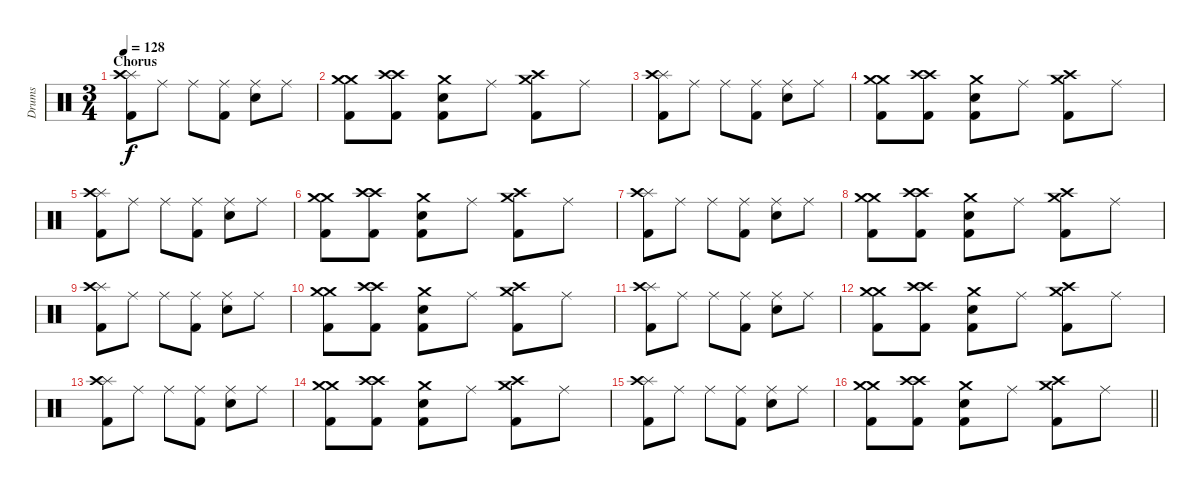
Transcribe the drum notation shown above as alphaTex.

\track ("Drums" "Drums") {instrument percussion}
\staff {score}
\articulation defaults
\ts (3 4)
\section ("" "Chorus")
\tempo 128
\clef neutral
\ks c
("Splash (hit)" "Crash high (hit)" "Kick (hit) 2").8{dy f} "Ride (middle)".8 "Ride (middle)".8 ("Ride (middle)" "Kick (hit) 2").8 ("Ride (middle)" "Snare (hit) 2").8 "Ride (middle)".8 |
("Crash medium (hit)" "Crash medium (hit)" "Kick (hit) 2").8 ("Crash high (hit)" "Crash high (hit)" "Kick (hit) 2").8 ("Crash medium (hit)" "Snare (hit) 2" "Kick (hit) 2").8 "Ride (middle)".8 ("Crash medium (hit)" "Crash high (hit)" "Kick (hit) 2").8 "Ride (middle)".8 |
("Splash (hit)" "Crash high (hit)" "Kick (hit) 2").8 "Ride (middle)".8 "Ride (middle)".8 ("Ride (middle)" "Kick (hit) 2").8 ("Ride (middle)" "Snare (hit) 2").8 "Ride (middle)".8 |
("Crash medium (hit)" "Crash medium (hit)" "Kick (hit) 2").8 ("Crash high (hit)" "Crash high (hit)" "Kick (hit) 2").8 ("Crash medium (hit)" "Snare (hit) 2" "Kick (hit) 2").8 "Ride (middle)".8 ("Crash medium (hit)" "Crash high (hit)" "Kick (hit) 2").8 "Ride (middle)".8 |
("Splash (hit)" "Crash high (hit)" "Kick (hit) 2").8 "Ride (middle)".8 "Ride (middle)".8 ("Ride (middle)" "Kick (hit) 2").8 ("Ride (middle)" "Snare (hit) 2").8 "Ride (middle)".8 |
("Crash medium (hit)" "Crash medium (hit)" "Kick (hit) 2").8 ("Crash high (hit)" "Crash high (hit)" "Kick (hit) 2").8 ("Crash medium (hit)" "Snare (hit) 2" "Kick (hit) 2").8 "Ride (middle)".8 ("Crash medium (hit)" "Crash high (hit)" "Kick (hit) 2").8 "Ride (middle)".8 |
("Splash (hit)" "Crash high (hit)" "Kick (hit) 2").8 "Ride (middle)".8 "Ride (middle)".8 ("Ride (middle)" "Kick (hit) 2").8 ("Ride (middle)" "Snare (hit) 2").8 "Ride (middle)".8 |
("Crash medium (hit)" "Crash medium (hit)" "Kick (hit) 2").8 ("Crash high (hit)" "Crash high (hit)" "Kick (hit) 2").8 ("Crash medium (hit)" "Snare (hit) 2" "Kick (hit) 2").8 "Ride (middle)".8 ("Crash medium (hit)" "Crash high (hit)" "Kick (hit) 2").8 "Ride (middle)".8 |
("Splash (hit)" "Crash high (hit)" "Kick (hit) 2").8 "Ride (middle)".8 "Ride (middle)".8 ("Ride (middle)" "Kick (hit) 2").8 ("Ride (middle)" "Snare (hit) 2").8 "Ride (middle)".8 |
("Crash medium (hit)" "Crash medium (hit)" "Kick (hit) 2").8 ("Crash high (hit)" "Crash high (hit)" "Kick (hit) 2").8 ("Crash medium (hit)" "Snare (hit) 2" "Kick (hit) 2").8 "Ride (middle)".8 ("Crash medium (hit)" "Crash high (hit)" "Kick (hit) 2").8 "Ride (middle)".8 |
("Splash (hit)" "Crash high (hit)" "Kick (hit) 2").8 "Ride (middle)".8 "Ride (middle)".8 ("Ride (middle)" "Kick (hit) 2").8 ("Ride (middle)" "Snare (hit) 2").8 "Ride (middle)".8 |
("Crash medium (hit)" "Crash medium (hit)" "Kick (hit) 2").8 ("Crash high (hit)" "Crash high (hit)" "Kick (hit) 2").8 ("Crash medium (hit)" "Snare (hit) 2" "Kick (hit) 2").8 "Ride (middle)".8 ("Crash medium (hit)" "Crash high (hit)" "Kick (hit) 2").8 "Ride (middle)".8 |
("Splash (hit)" "Crash high (hit)" "Kick (hit) 2").8 "Ride (middle)".8 "Ride (middle)".8 ("Ride (middle)" "Kick (hit) 2").8 ("Ride (middle)" "Snare (hit) 2").8 "Ride (middle)".8 |
("Crash medium (hit)" "Crash medium (hit)" "Kick (hit) 2").8 ("Crash high (hit)" "Crash high (hit)" "Kick (hit) 2").8 ("Crash medium (hit)" "Snare (hit) 2" "Kick (hit) 2").8 "Ride (middle)".8 ("Crash medium (hit)" "Crash high (hit)" "Kick (hit) 2").8 "Ride (middle)".8 |
("Splash (hit)" "Crash high (hit)" "Kick (hit) 2").8 "Ride (middle)".8 "Ride (middle)".8 ("Ride (middle)" "Kick (hit) 2").8 ("Ride (middle)" "Snare (hit) 2").8 "Ride (middle)".8 |
\barLineRight lightlight
("Crash medium (hit)" "Crash medium (hit)" "Kick (hit) 2").8 ("Crash high (hit)" "Crash high (hit)" "Kick (hit) 2").8 ("Crash medium (hit)" "Snare (hit) 2" "Kick (hit) 2").8 "Ride (middle)".8 ("Crash medium (hit)" "Crash high (hit)" "Kick (hit) 2").8 "Ride (middle)".8
